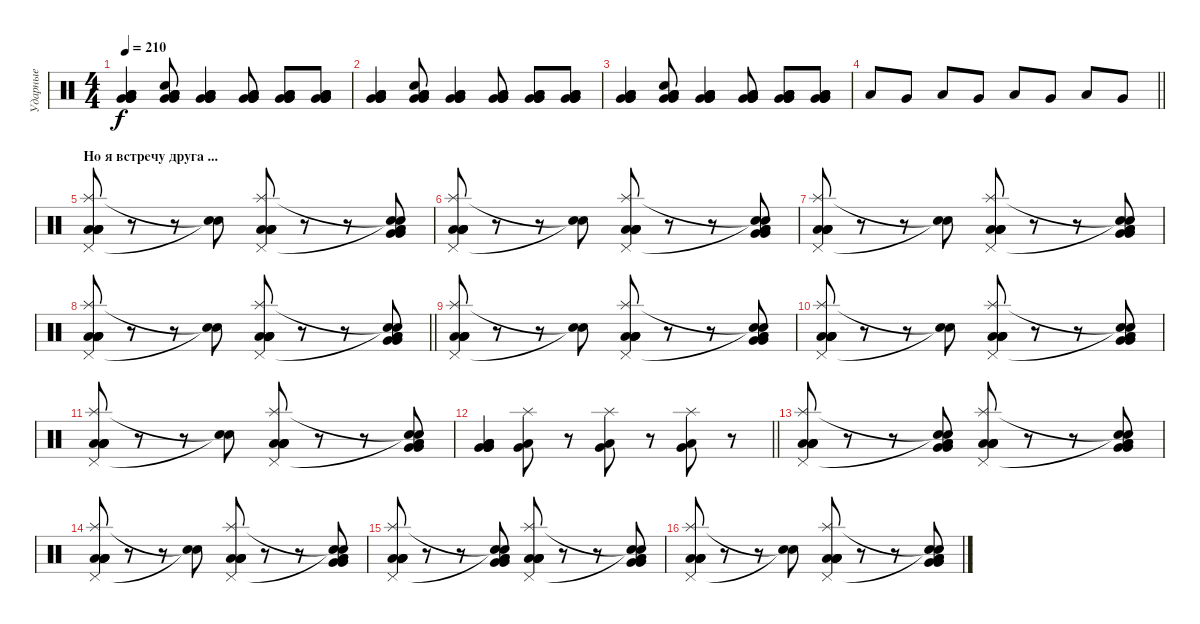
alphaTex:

\track ("Ударные" "Ударные") {instrument percussion}
\staff {score}
\articulation defaults
\ts (4 4)
\tempo 210
\clef neutral
\ks c
("Very Low Tom (hit)" "Very Low Tom (hit)" "Very Low Tom (hit)" "Low Tom (hit)" "Low Tom (hit)" "Low Tom (hit)").4{dy f} ("Very Low Tom (hit)" "Very Low Tom (hit)" "Metronome (bell)" "Low Tom (hit)" "Low Tom (hit)" "Low Tom (hit)").8 ("Very Low Tom (hit)" "Very Low Tom (hit)" "Very Low Tom (hit)" "Low Tom (hit)" "Low Tom (hit)" "Low Tom (hit)").4 ("Very Low Tom (hit)" "Very Low Tom (hit)" "Very Low Tom (hit)" "Low Tom (hit)" "Low Tom (hit)" "Low Tom (hit)").8 ("Very Low Tom (hit)" "Very Low Tom (hit)" "Very Low Tom (hit)" "Low Tom (hit)" "Low Tom (hit)" "Low Tom (hit)").8 ("Very Low Tom (hit)" "Very Low Tom (hit)" "Very Low Tom (hit)" "Low Tom (hit)" "Low Tom (hit)" "Low Tom (hit)").8 |
("Very Low Tom (hit)" "Very Low Tom (hit)" "Very Low Tom (hit)" "Low Tom (hit)" "Low Tom (hit)" "Low Tom (hit)").4 ("Very Low Tom (hit)" "Very Low Tom (hit)" "Metronome (bell)" "Low Tom (hit)" "Low Tom (hit)" "Low Tom (hit)").8 ("Very Low Tom (hit)" "Very Low Tom (hit)" "Very Low Tom (hit)" "Low Tom (hit)" "Low Tom (hit)" "Low Tom (hit)").4 ("Very Low Tom (hit)" "Very Low Tom (hit)" "Very Low Tom (hit)" "Low Tom (hit)" "Low Tom (hit)" "Low Tom (hit)").8 ("Very Low Tom (hit)" "Very Low Tom (hit)" "Very Low Tom (hit)" "Low Tom (hit)" "Low Tom (hit)" "Low Tom (hit)").8 ("Very Low Tom (hit)" "Very Low Tom (hit)" "Very Low Tom (hit)" "Low Tom (hit)" "Low Tom (hit)" "Low Tom (hit)").8 |
("Very Low Tom (hit)" "Very Low Tom (hit)" "Very Low Tom (hit)" "Low Tom (hit)" "Low Tom (hit)" "Low Tom (hit)").4 ("Very Low Tom (hit)" "Very Low Tom (hit)" "Metronome (bell)" "Low Tom (hit)" "Low Tom (hit)" "Low Tom (hit)").8 ("Very Low Tom (hit)" "Very Low Tom (hit)" "Very Low Tom (hit)" "Low Tom (hit)" "Low Tom (hit)" "Low Tom (hit)").4 ("Very Low Tom (hit)" "Very Low Tom (hit)" "Very Low Tom (hit)" "Low Tom (hit)" "Low Tom (hit)" "Low Tom (hit)").8 ("Very Low Tom (hit)" "Very Low Tom (hit)" "Very Low Tom (hit)" "Low Tom (hit)" "Low Tom (hit)" "Low Tom (hit)").8 ("Very Low Tom (hit)" "Very Low Tom (hit)" "Very Low Tom (hit)" "Low Tom (hit)" "Low Tom (hit)" "Low Tom (hit)").8 |
\barLineRight lightlight "Low Tom (hit)".8 "Very Low Tom (hit)".8 "Low Tom (hit)".8 "Very Low Tom (hit)".8 "Low Tom (hit)".8 "Very Low Tom (hit)".8 "Low Tom (hit)".8 "Very Low Tom (hit)".8
|
\section ("" "Но я встречу друга ...")
("Splash (hit)" "Pedal Hi-Hat (hit)" "Low Tom (hit)" "Low Tom (hit)" "Low Tom (hit)" "Low Tom (hit)").8 r.8 r.8 ("Snare (hit)"{t} "Snare (hit)"{t}).8 ("Splash (hit)" "Pedal Hi-Hat (hit)" "Low Tom (hit)" "Low Tom (hit)" "Low Tom (hit)" "Low Tom (hit)").8 r.8 r.8 ("Snare (hit)"{t} "Snare (hit)"{t} "Very Low Tom (hit)" "Very Low Tom (hit)" "Low Tom (hit)" "Low Tom (hit)").8 |
("Splash (hit)" "Pedal Hi-Hat (hit)" "Low Tom (hit)" "Low Tom (hit)" "Low Tom (hit)" "Low Tom (hit)").8 r.8 r.8 ("Snare (hit)"{t} "Snare (hit)"{t}).8 ("Splash (hit)" "Pedal Hi-Hat (hit)" "Low Tom (hit)" "Low Tom (hit)" "Low Tom (hit)" "Low Tom (hit)").8 r.8 r.8 ("Snare (hit)"{t} "Snare (hit)"{t} "Very Low Tom (hit)" "Very Low Tom (hit)" "Low Tom (hit)" "Low Tom (hit)").8 |
("Splash (hit)" "Pedal Hi-Hat (hit)" "Low Tom (hit)" "Low Tom (hit)" "Low Tom (hit)" "Low Tom (hit)").8 r.8 r.8 ("Snare (hit)"{t} "Snare (hit)"{t}).8 ("Splash (hit)" "Pedal Hi-Hat (hit)" "Low Tom (hit)" "Low Tom (hit)" "Low Tom (hit)" "Low Tom (hit)").8 r.8 r.8 ("Snare (hit)"{t} "Snare (hit)"{t} "Very Low Tom (hit)" "Very Low Tom (hit)" "Low Tom (hit)" "Low Tom (hit)").8 |
\barLineRight lightlight
("Splash (hit)" "Pedal Hi-Hat (hit)" "Low Tom (hit)" "Low Tom (hit)" "Low Tom (hit)" "Low Tom (hit)").8 r.8 r.8 ("Snare (hit)"{t} "Snare (hit)"{t}).8 ("Splash (hit)" "Pedal Hi-Hat (hit)" "Low Tom (hit)" "Low Tom (hit)" "Low Tom (hit)" "Low Tom (hit)").8 r.8 r.8 ("Snare (hit)"{t} "Snare (hit)"{t} "Very Low Tom (hit)" "Very Low Tom (hit)" "Low Tom (hit)" "Low Tom (hit)").8 |
("Splash (hit)" "Pedal Hi-Hat (hit)" "Low Tom (hit)" "Low Tom (hit)" "Low Tom (hit)" "Low Tom (hit)").8 r.8 r.8 ("Snare (hit)"{t} "Snare (hit)"{t}).8 ("Splash (hit)" "Pedal Hi-Hat (hit)" "Low Tom (hit)" "Low Tom (hit)" "Low Tom (hit)" "Low Tom (hit)").8 r.8 r.8 ("Snare (hit)"{t} "Snare (hit)"{t} "Very Low Tom (hit)" "Very Low Tom (hit)" "Low Tom (hit)" "Low Tom (hit)").8 |
("Splash (hit)" "Pedal Hi-Hat (hit)" "Low Tom (hit)" "Low Tom (hit)" "Low Tom (hit)" "Low Tom (hit)").8 r.8 r.8 ("Snare (hit)"{t} "Snare (hit)"{t}).8 ("Splash (hit)" "Pedal Hi-Hat (hit)" "Low Tom (hit)" "Low Tom (hit)" "Low Tom (hit)" "Low Tom (hit)").8 r.8 r.8 ("Snare (hit)"{t} "Snare (hit)"{t} "Very Low Tom (hit)" "Very Low Tom (hit)" "Low Tom (hit)" "Low Tom (hit)").8 |
("Splash (hit)" "Pedal Hi-Hat (hit)" "Low Tom (hit)" "Low Tom (hit)" "Low Tom (hit)" "Low Tom (hit)").8 r.8 r.8 ("Snare (hit)"{t} "Snare (hit)"{t}).8 ("Splash (hit)" "Pedal Hi-Hat (hit)" "Low Tom (hit)" "Low Tom (hit)" "Low Tom (hit)" "Low Tom (hit)").8 r.8 r.8 ("Snare (hit)"{t} "Snare (hit)"{t} "Very Low Tom (hit)" "Very Low Tom (hit)" "Low Tom (hit)" "Low Tom (hit)").8 |
\barLineRight lightlight
("Very Low Tom (hit)" "Very Low Tom (hit)" "Very Low Tom (hit)" "Low Tom (hit)" "Low Tom (hit)" "Low Tom (hit)").4 ("Very Low Tom (hit)" "Low Tom (hit)" "Splash (hit)").8 r.8 ("Very Low Tom (hit)" "Low Tom (hit)" "Splash (hit)").8 r.8 ("Very Low Tom (hit)" "Low Tom (hit)" "Splash (hit)").8 r.8 |
("Splash (hit)" "Pedal Hi-Hat (hit)" "Low Tom (hit)" "Low Tom (hit)" "Low Tom (hit)" "Low Tom (hit)").8 r.8 r.8 ("Snare (hit)"{t} "Snare (hit)"{t} "Very Low Tom (hit)" "Very Low Tom (hit)" "Low Tom (hit)" "Low Tom (hit)").8 ("Splash (hit)" "Pedal Hi-Hat (hit)" "Low Tom (hit)" "Low Tom (hit)" "Low Tom (hit)" "Low Tom (hit)").8 r.8 r.8 ("Snare (hit)"{t} "Snare (hit)"{t} "Very Low Tom (hit)" "Very Low Tom (hit)" "Low Tom (hit)" "Low Tom (hit)").8 |
("Splash (hit)" "Pedal Hi-Hat (hit)" "Low Tom (hit)" "Low Tom (hit)" "Low Tom (hit)" "Low Tom (hit)").8 r.8 r.8 ("Snare (hit)"{t} "Snare (hit)"{t}).8 ("Splash (hit)" "Pedal Hi-Hat (hit)" "Low Tom (hit)" "Low Tom (hit)" "Low Tom (hit)" "Low Tom (hit)").8 r.8 r.8 ("Snare (hit)"{t} "Snare (hit)"{t} "Very Low Tom (hit)" "Very Low Tom (hit)" "Low Tom (hit)" "Low Tom (hit)").8 |
("Splash (hit)" "Pedal Hi-Hat (hit)" "Low Tom (hit)" "Low Tom (hit)" "Low Tom (hit)" "Low Tom (hit)").8 r.8 r.8 ("Snare (hit)"{t} "Snare (hit)"{t} "Very Low Tom (hit)" "Very Low Tom (hit)" "Low Tom (hit)" "Low Tom (hit)").8 ("Splash (hit)" "Pedal Hi-Hat (hit)" "Low Tom (hit)" "Low Tom (hit)" "Low Tom (hit)" "Low Tom (hit)").8 r.8 r.8 ("Snare (hit)"{t} "Snare (hit)"{t} "Very Low Tom (hit)" "Very Low Tom (hit)" "Low Tom (hit)" "Low Tom (hit)").8 |
("Splash (hit)" "Pedal Hi-Hat (hit)" "Low Tom (hit)" "Low Tom (hit)" "Low Tom (hit)" "Low Tom (hit)").8 r.8 r.8 ("Snare (hit)"{t} "Snare (hit)"{t}).8 ("Splash (hit)" "Pedal Hi-Hat (hit)" "Low Tom (hit)" "Low Tom (hit)" "Low Tom (hit)" "Low Tom (hit)").8 r.8 r.8 ("Snare (hit)"{t} "Snare (hit)"{t} "Very Low Tom (hit)" "Very Low Tom (hit)" "Low Tom (hit)" "Low Tom (hit)").8
